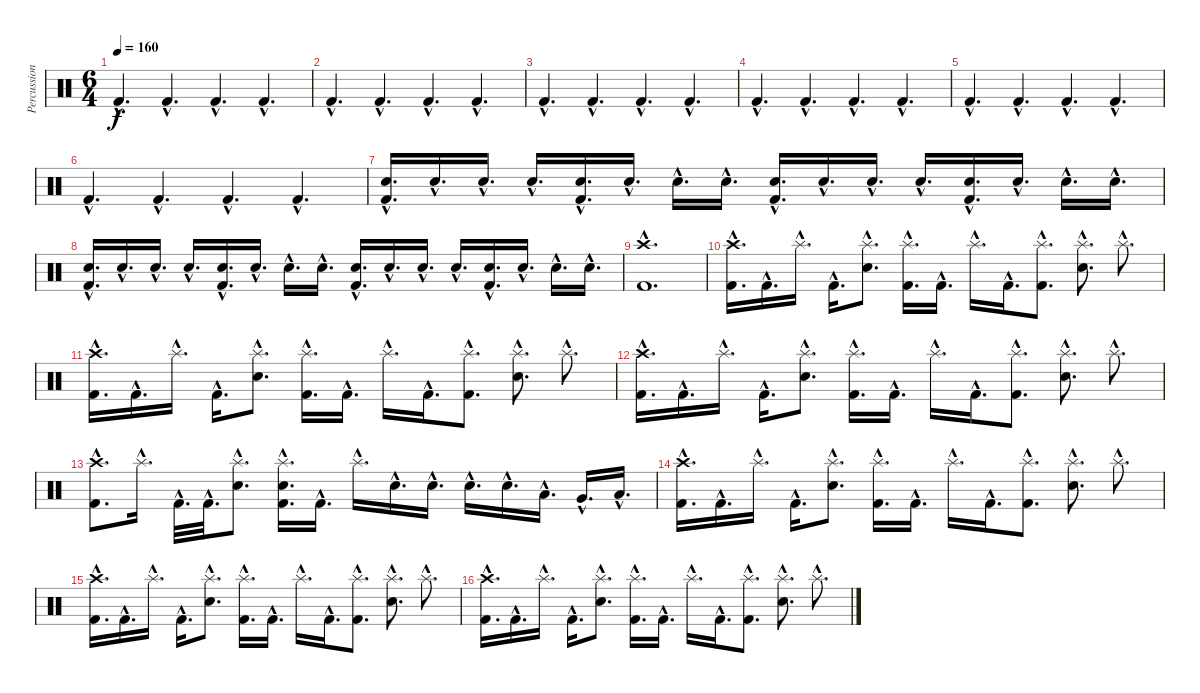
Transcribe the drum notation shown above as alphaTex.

\track ("Percussion" "Percussion") {instrument percussion}
\staff {score}
\articulation defaults
\ts (6 4)
\tempo 160
\clef neutral
\ks c "Kick (hit) 2"{hac}.4{d dy f} "Kick (hit) 2"{hac}.4{d} "Kick (hit) 2"{hac}.4{d} "Kick (hit) 2"{hac}.4{d}
|
"Kick (hit) 2"{hac}.4{d} "Kick (hit) 2"{hac}.4{d} "Kick (hit) 2"{hac}.4{d} "Kick (hit) 2"{hac}.4{d} |
"Kick (hit) 2"{hac}.4{d} "Kick (hit) 2"{hac}.4{d} "Kick (hit) 2"{hac}.4{d} "Kick (hit) 2"{hac}.4{d} |
"Kick (hit) 2"{hac}.4{d} "Kick (hit) 2"{hac}.4{d} "Kick (hit) 2"{hac}.4{d} "Kick (hit) 2"{hac}.4{d} |
"Kick (hit) 2"{hac}.4{d} "Kick (hit) 2"{hac}.4{d} "Kick (hit) 2"{hac}.4{d} "Kick (hit) 2"{hac}.4{d} |
"Kick (hit) 2"{hac}.4{d} "Kick (hit) 2"{hac}.4{d} "Kick (hit) 2"{hac}.4{d} "Kick (hit) 2"{hac}.4{d} |
("Electric Snare (hit)"{hac} "Kick (hit) 2"{hac}).16{d} "Electric Snare (hit)"{hac}.16{d} "Electric Snare (hit)"{hac}.16{d} "Electric Snare (hit)"{hac}.16{d} ("Electric Snare (hit)"{hac} "Kick (hit) 2"{hac}).16{d} "Electric Snare (hit)"{hac}.16{d} "Electric Snare (hit)"{hac}.16{d} "Electric Snare (hit)"{hac}.16{d} ("Electric Snare (hit)"{hac} "Kick (hit) 2"{hac}).16{d} "Electric Snare (hit)"{hac}.16{d} "Electric Snare (hit)"{hac}.16{d} "Electric Snare (hit)"{hac}.16{d} ("Electric Snare (hit)"{hac} "Kick (hit) 2"{hac}).16{d} "Electric Snare (hit)"{hac}.16{d} "Electric Snare (hit)"{hac}.16{d} "Electric Snare (hit)"{hac}.16{d} |
("Electric Snare (hit)"{hac} "Kick (hit) 2"{hac}).16{d} "Electric Snare (hit)"{hac}.16{d} "Electric Snare (hit)"{hac}.16{d} "Electric Snare (hit)"{hac}.16{d} ("Electric Snare (hit)"{hac} "Kick (hit) 2"{hac}).16{d} "Electric Snare (hit)"{hac}.16{d} "Electric Snare (hit)"{hac}.16{d} "Electric Snare (hit)"{hac}.16{d} ("Electric Snare (hit)"{hac} "Kick (hit) 2"{hac}).16{d} "Electric Snare (hit)"{hac}.16{d} "Electric Snare (hit)"{hac}.16{d} "Electric Snare (hit)"{hac}.16{d} ("Electric Snare (hit)"{hac} "Kick (hit) 2"{hac}).16{d} "Electric Snare (hit)"{hac}.16{d} "Electric Snare (hit)"{hac}.16{d} "Electric Snare (hit)"{hac}.16{d} |
("Crash high (hit)"{hac} "Kick (hit) 2"{hac}).1{d} |
("Crash high (hit)"{hac} "Kick (hit) 2"{hac}).16{d} "Kick (hit) 2"{hac}.16{d} "Splash (hit)"{hac}.16{d} "Kick (hit) 2"{hac}.16{d} ("Splash (hit)"{hac} "Electric Snare (hit)"{hac}).8{d} ("Splash (hit)"{hac} "Kick (hit) 2"{hac}).16{d} "Kick (hit) 2"{hac}.16{d} "Splash (hit)"{hac}.16{d} "Kick (hit) 2"{hac}.16{d} ("Splash (hit)"{hac} "Kick (hit) 2"{hac}).8{d} ("Splash (hit)"{hac} "Electric Snare (hit)"{hac}).8{d} "Splash (hit)"{hac}.8{d} |
("Crash high (hit)"{hac} "Kick (hit) 2"{hac}).16{d} "Kick (hit) 2"{hac}.16{d} "Splash (hit)"{hac}.16{d} "Kick (hit) 2"{hac}.16{d} ("Splash (hit)"{hac} "Electric Snare (hit)"{hac}).8{d} ("Splash (hit)"{hac} "Kick (hit) 2"{hac}).16{d} "Kick (hit) 2"{hac}.16{d} "Splash (hit)"{hac}.16{d} "Kick (hit) 2"{hac}.16{d} ("Splash (hit)"{hac} "Kick (hit) 2"{hac}).8{d} ("Splash (hit)"{hac} "Electric Snare (hit)"{hac}).8{d} "Splash (hit)"{hac}.8{d} |
("Crash high (hit)"{hac} "Kick (hit) 2"{hac}).16{d} "Kick (hit) 2"{hac}.16{d} "Splash (hit)"{hac}.16{d} "Kick (hit) 2"{hac}.16{d} ("Splash (hit)"{hac} "Electric Snare (hit)"{hac}).8{d} ("Splash (hit)"{hac} "Kick (hit) 2"{hac}).16{d} "Kick (hit) 2"{hac}.16{d} "Splash (hit)"{hac}.16{d} "Kick (hit) 2"{hac}.16{d} ("Splash (hit)"{hac} "Kick (hit) 2"{hac}).8{d} ("Splash (hit)"{hac} "Electric Snare (hit)"{hac}).8{d} "Splash (hit)"{hac}.8{d} |
("Crash high (hit)"{hac} "Kick (hit) 2"{hac}).8{d} "Splash (hit)"{hac}.16{d} "Kick (hit) 2"{hac}.32{d} "Kick (hit) 2"{hac}.32{d} ("Splash (hit)"{hac} "Electric Snare (hit)"{hac}).8{d} ("Splash (hit)"{hac} "Electric Snare (hit)"{hac} "Kick (hit) 2"{hac}).16{d} "Kick (hit) 2"{hac}.16{d} "Splash (hit)"{hac}.16{d} "Electric Snare (hit)"{hac}.16{d} "Electric Snare (hit)"{hac}.16{d} "Electric Snare (hit)"{hac}.16{d} "Electric Snare (hit)"{hac}.16{d} "Low Tom (hit)"{hac}.16{d} "Very Low Tom (hit)"{hac}.16{d} "Low Floor Tom (hit)"{hac}.16{d} |
("Crash high (hit)"{hac} "Kick (hit) 2"{hac}).16{d} "Kick (hit) 2"{hac}.16{d} "Splash (hit)"{hac}.16{d} "Kick (hit) 2"{hac}.16{d} ("Splash (hit)"{hac} "Electric Snare (hit)"{hac}).8{d} ("Splash (hit)"{hac} "Kick (hit) 2"{hac}).16{d} "Kick (hit) 2"{hac}.16{d} "Splash (hit)"{hac}.16{d} "Kick (hit) 2"{hac}.16{d} ("Splash (hit)"{hac} "Kick (hit) 2"{hac}).8{d} ("Splash (hit)"{hac} "Electric Snare (hit)"{hac}).8{d} "Splash (hit)"{hac}.8{d} |
("Crash high (hit)"{hac} "Kick (hit) 2"{hac}).16{d} "Kick (hit) 2"{hac}.16{d} "Splash (hit)"{hac}.16{d} "Kick (hit) 2"{hac}.16{d} ("Splash (hit)"{hac} "Electric Snare (hit)"{hac}).8{d} ("Splash (hit)"{hac} "Kick (hit) 2"{hac}).16{d} "Kick (hit) 2"{hac}.16{d} "Splash (hit)"{hac}.16{d} "Kick (hit) 2"{hac}.16{d} ("Splash (hit)"{hac} "Kick (hit) 2"{hac}).8{d} ("Splash (hit)"{hac} "Electric Snare (hit)"{hac}).8{d} "Splash (hit)"{hac}.8{d} |
("Crash high (hit)"{hac} "Kick (hit) 2"{hac}).16{d} "Kick (hit) 2"{hac}.16{d} "Splash (hit)"{hac}.16{d} "Kick (hit) 2"{hac}.16{d} ("Splash (hit)"{hac} "Electric Snare (hit)"{hac}).8{d} ("Splash (hit)"{hac} "Kick (hit) 2"{hac}).16{d} "Kick (hit) 2"{hac}.16{d} "Splash (hit)"{hac}.16{d} "Kick (hit) 2"{hac}.16{d} ("Splash (hit)"{hac} "Kick (hit) 2"{hac}).8{d} ("Splash (hit)"{hac} "Electric Snare (hit)"{hac}).8{d} "Splash (hit)"{hac}.8{d}
